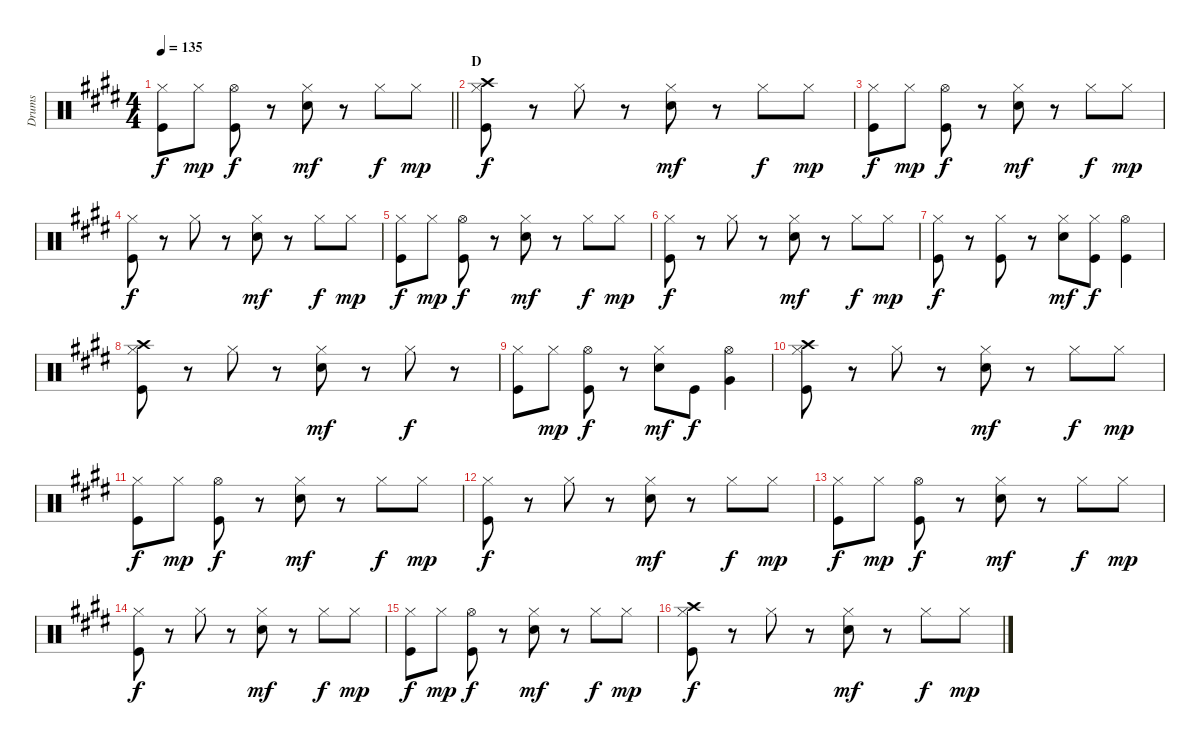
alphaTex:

\track ("Drums" "Drums") {instrument percussion}
\staff {score}
\articulation defaults
\ts (4 4)
\tempo 135
\clef neutral
\barLineRight lightlight
\ks e
("Hi-Hat (closed)" "Kick (hit)").8{dy f} "Hi-Hat (closed)".8{dy mp} ("Hi-Hat (open)" "Kick (hit)").8{dy f} r.8 ("Hi-Hat (closed)" "Electric Snare (hit)").8{dy mf} r.8 "Hi-Hat (closed)".8{dy f} "Hi-Hat (closed)".8{dy mp} |
\section ("" "D")
("Hi-Hat (closed)" "Crash high (hit)" "Kick (hit)").8{dy f} r.8 "Hi-Hat (closed)".8 r.8 ("Hi-Hat (closed)" "Electric Snare (hit)").8{dy mf} r.8 "Hi-Hat (closed)".8{dy f} "Hi-Hat (closed)".8{dy mp} |
("Hi-Hat (closed)" "Kick (hit)").8{dy f} "Hi-Hat (closed)".8{dy mp} ("Hi-Hat (open)" "Kick (hit)").8{dy f} r.8 ("Hi-Hat (closed)" "Electric Snare (hit)").8{dy mf} r.8 "Hi-Hat (closed)".8{dy f} "Hi-Hat (closed)".8{dy mp} |
("Hi-Hat (closed)" "Kick (hit)").8{dy f} r.8 "Hi-Hat (closed)".8 r.8 ("Hi-Hat (closed)" "Electric Snare (hit)").8{dy mf} r.8 "Hi-Hat (closed)".8{dy f} "Hi-Hat (closed)".8{dy mp} |
("Hi-Hat (closed)" "Kick (hit)").8{dy f} "Hi-Hat (closed)".8{dy mp} ("Hi-Hat (open)" "Kick (hit)").8{dy f} r.8 ("Hi-Hat (closed)" "Electric Snare (hit)").8{dy mf} r.8 "Hi-Hat (closed)".8{dy f} "Hi-Hat (closed)".8{dy mp} |
("Hi-Hat (closed)" "Kick (hit)").8{dy f} r.8 "Hi-Hat (closed)".8 r.8 ("Hi-Hat (closed)" "Electric Snare (hit)").8{dy mf} r.8 "Hi-Hat (closed)".8{dy f} "Hi-Hat (closed)".8{dy mp} |
("Hi-Hat (closed)" "Kick (hit)").8{dy f} r.8 ("Hi-Hat (closed)" "Kick (hit)").8 r.8 ("Hi-Hat (closed)" "Electric Snare (hit)").8{dy mf} ("Hi-Hat (closed)" "Kick (hit)").8{dy f} ("Hi-Hat (open)" "Kick (hit)").4 |
("Hi-Hat (closed)" "Crash high (hit)" "Kick (hit)").8 r.8 "Hi-Hat (closed)".8 r.8 ("Hi-Hat (closed)" "Electric Snare (hit)").8{dy mf} r.8 "Hi-Hat (closed)".8{dy f} r.8 |
("Hi-Hat (closed)" "Kick (hit)").8 "Hi-Hat (closed)".8{dy mp} ("Hi-Hat (open)" "Kick (hit)").8{dy f} r.8 ("Hi-Hat (closed)" "Electric Snare (hit)").8{dy mf} "Kick (hit)".8{dy f} ("Hi-Hat (open)" "Very Low Tom (hit)").4 |
("Hi-Hat (closed)" "Crash high (hit)" "Kick (hit)").8 r.8 "Hi-Hat (closed)".8 r.8 ("Hi-Hat (closed)" "Electric Snare (hit)").8{dy mf} r.8 "Hi-Hat (closed)".8{dy f} "Hi-Hat (closed)".8{dy mp} |
("Hi-Hat (closed)" "Kick (hit)").8{dy f} "Hi-Hat (closed)".8{dy mp} ("Hi-Hat (open)" "Kick (hit)").8{dy f} r.8 ("Hi-Hat (closed)" "Electric Snare (hit)").8{dy mf} r.8 "Hi-Hat (closed)".8{dy f} "Hi-Hat (closed)".8{dy mp} |
("Hi-Hat (closed)" "Kick (hit)").8{dy f} r.8 "Hi-Hat (closed)".8 r.8 ("Hi-Hat (closed)" "Electric Snare (hit)").8{dy mf} r.8 "Hi-Hat (closed)".8{dy f} "Hi-Hat (closed)".8{dy mp} |
("Hi-Hat (closed)" "Kick (hit)").8{dy f} "Hi-Hat (closed)".8{dy mp} ("Hi-Hat (open)" "Kick (hit)").8{dy f} r.8 ("Hi-Hat (closed)" "Electric Snare (hit)").8{dy mf} r.8 "Hi-Hat (closed)".8{dy f} "Hi-Hat (closed)".8{dy mp} |
("Hi-Hat (closed)" "Kick (hit)").8{dy f} r.8 "Hi-Hat (closed)".8 r.8 ("Hi-Hat (closed)" "Electric Snare (hit)").8{dy mf} r.8 "Hi-Hat (closed)".8{dy f} "Hi-Hat (closed)".8{dy mp} |
("Hi-Hat (closed)" "Kick (hit)").8{dy f} "Hi-Hat (closed)".8{dy mp} ("Hi-Hat (open)" "Kick (hit)").8{dy f} r.8 ("Hi-Hat (closed)" "Electric Snare (hit)").8{dy mf} r.8 "Hi-Hat (closed)".8{dy f} "Hi-Hat (closed)".8{dy mp} |
("Hi-Hat (closed)" "Crash high (hit)" "Kick (hit)").8{dy f} r.8 "Hi-Hat (closed)".8 r.8 ("Hi-Hat (closed)" "Electric Snare (hit)").8{dy mf} r.8 "Hi-Hat (closed)".8{dy f} "Hi-Hat (closed)".8{dy mp}
